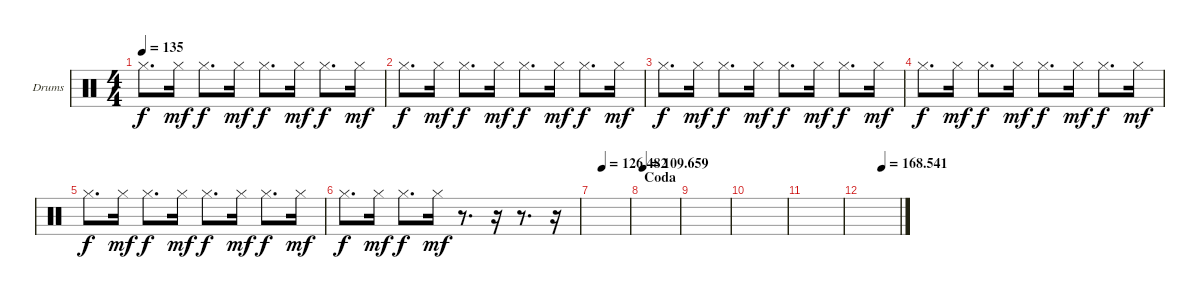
\bracketExtendMode groupsimilarinstruments
\firstSystemTrackNameOrientation horizontal
\otherSystemsTrackNameOrientation horizontal
\track ("HH" "Drums") {instrument percussion}
\staff {score}
\articulation defaults
\ts (4 4)
\tempo 135
\clef neutral
\ks c "Hi-Hat (closed)".8{d dy f} "Hi-Hat (closed)".16{dy mf} "Hi-Hat (closed)".8{d dy f} "Hi-Hat (closed)".16{dy mf} "Hi-Hat (closed)".8{d dy f} "Hi-Hat (closed)".16{dy mf} "Hi-Hat (closed)".8{d dy f} "Hi-Hat (closed)".16{dy mf}
|
"Hi-Hat (closed)".8{d dy f} "Hi-Hat (closed)".16{dy mf} "Hi-Hat (closed)".8{d dy f} "Hi-Hat (closed)".16{dy mf} "Hi-Hat (closed)".8{d dy f} "Hi-Hat (closed)".16{dy mf} "Hi-Hat (closed)".8{d dy f} "Hi-Hat (closed)".16{dy mf} |
"Hi-Hat (closed)".8{d dy f} "Hi-Hat (closed)".16{dy mf} "Hi-Hat (closed)".8{d dy f} "Hi-Hat (closed)".16{dy mf} "Hi-Hat (closed)".8{d dy f} "Hi-Hat (closed)".16{dy mf} "Hi-Hat (closed)".8{d dy f} "Hi-Hat (closed)".16{dy mf} |
"Hi-Hat (closed)".8{d dy f} "Hi-Hat (closed)".16{dy mf} "Hi-Hat (closed)".8{d dy f} "Hi-Hat (closed)".16{dy mf} "Hi-Hat (closed)".8{d dy f} "Hi-Hat (closed)".16{dy mf} "Hi-Hat (closed)".8{d dy f} "Hi-Hat (closed)".16{dy mf} |
"Hi-Hat (closed)".8{d dy f} "Hi-Hat (closed)".16{dy mf} "Hi-Hat (closed)".8{d dy f} "Hi-Hat (closed)".16{dy mf} "Hi-Hat (closed)".8{d dy f} "Hi-Hat (closed)".16{dy mf} "Hi-Hat (closed)".8{d dy f} "Hi-Hat (closed)".16{dy mf} |
"Hi-Hat (closed)".8{d dy f} "Hi-Hat (closed)".16{dy mf} "Hi-Hat (closed)".8{d dy f} "Hi-Hat (closed)".16{dy mf} r.8{d} r.16 r.8{d} r.16 |
\tempo (126.482 0.25)
|
\section ("" "Coda")
\tempo
109.659 |
|
|
|
\tempo (168.541 0.53125)
